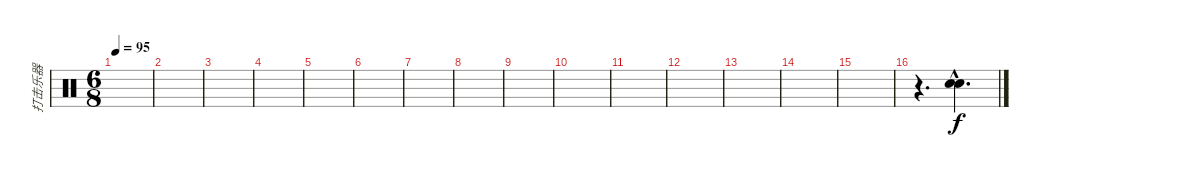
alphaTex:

\track ("打击乐器" "打击乐器") {instrument percussion}
\staff {score}
\articulation defaults
\ts (6 8)
\tempo 95
\clef neutral
\ks c
|
|
|
|
|
|
|
|
|
|
|
|
|
|
|
r.4{d} ("Hand Clap (hit)"{hac} "Hand Clap (hit)"{hac}).4{d bd 240}
